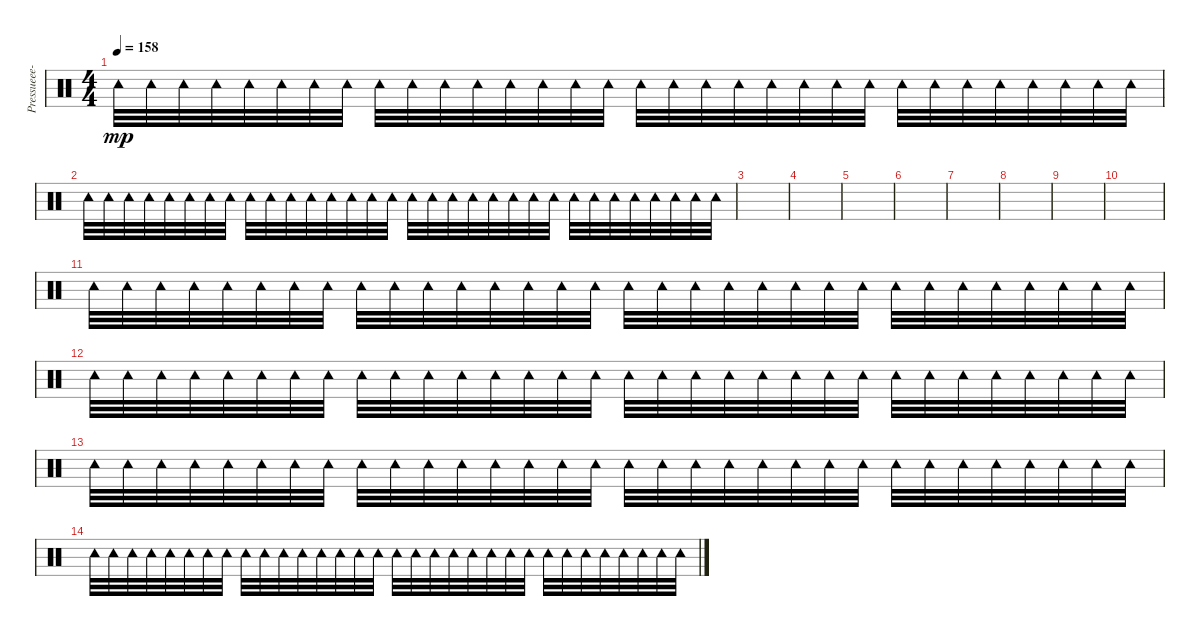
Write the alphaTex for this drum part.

\track ("" "Pressueee-") {instrument percussion}
\staff {score}
\articulation defaults
\ts (4 4)
\tempo 158
\clef neutral
\ks c "Tambourine (hit)".32{dy mp} "Tambourine (hit)".32 "Tambourine (hit)".32 "Tambourine (hit)".32 "Tambourine (hit)".32 "Tambourine (hit)".32 "Tambourine (hit)".32 "Tambourine (hit)".32 "Tambourine (hit)".32 "Tambourine (hit)".32 "Tambourine (hit)".32 "Tambourine (hit)".32 "Tambourine (hit)".32 "Tambourine (hit)".32 "Tambourine (hit)".32 "Tambourine (hit)".32 "Tambourine (hit)".32 "Tambourine (hit)".32 "Tambourine (hit)".32 "Tambourine (hit)".32 "Tambourine (hit)".32 "Tambourine (hit)".32 "Tambourine (hit)".32 "Tambourine (hit)".32 "Tambourine (hit)".32 "Tambourine (hit)".32 "Tambourine (hit)".32 "Tambourine (hit)".32 "Tambourine (hit)".32 "Tambourine (hit)".32 "Tambourine (hit)".32 "Tambourine (hit)".32
|
"Tambourine (hit)".32 "Tambourine (hit)".32 "Tambourine (hit)".32 "Tambourine (hit)".32 "Tambourine (hit)".32 "Tambourine (hit)".32 "Tambourine (hit)".32 "Tambourine (hit)".32 "Tambourine (hit)".32 "Tambourine (hit)".32 "Tambourine (hit)".32 "Tambourine (hit)".32 "Tambourine (hit)".32 "Tambourine (hit)".32 "Tambourine (hit)".32 "Tambourine (hit)".32 "Tambourine (hit)".32 "Tambourine (hit)".32 "Tambourine (hit)".32 "Tambourine (hit)".32 "Tambourine (hit)".32 "Tambourine (hit)".32 "Tambourine (hit)".32 "Tambourine (hit)".32 "Tambourine (hit)".32 "Tambourine (hit)".32 "Tambourine (hit)".32 "Tambourine (hit)".32 "Tambourine (hit)".32 "Tambourine (hit)".32 "Tambourine (hit)".32 "Tambourine (hit)".32 |
|
|
|
|
|
|
|
|
"Tambourine (hit)".32 "Tambourine (hit)".32 "Tambourine (hit)".32 "Tambourine (hit)".32 "Tambourine (hit)".32 "Tambourine (hit)".32 "Tambourine (hit)".32 "Tambourine (hit)".32 "Tambourine (hit)".32 "Tambourine (hit)".32 "Tambourine (hit)".32 "Tambourine (hit)".32 "Tambourine (hit)".32 "Tambourine (hit)".32 "Tambourine (hit)".32 "Tambourine (hit)".32 "Tambourine (hit)".32 "Tambourine (hit)".32 "Tambourine (hit)".32 "Tambourine (hit)".32 "Tambourine (hit)".32 "Tambourine (hit)".32 "Tambourine (hit)".32 "Tambourine (hit)".32 "Tambourine (hit)".32 "Tambourine (hit)".32 "Tambourine (hit)".32 "Tambourine (hit)".32 "Tambourine (hit)".32 "Tambourine (hit)".32 "Tambourine (hit)".32 "Tambourine (hit)".32 |
"Tambourine (hit)".32 "Tambourine (hit)".32 "Tambourine (hit)".32 "Tambourine (hit)".32 "Tambourine (hit)".32 "Tambourine (hit)".32 "Tambourine (hit)".32 "Tambourine (hit)".32 "Tambourine (hit)".32 "Tambourine (hit)".32 "Tambourine (hit)".32 "Tambourine (hit)".32 "Tambourine (hit)".32 "Tambourine (hit)".32 "Tambourine (hit)".32 "Tambourine (hit)".32 "Tambourine (hit)".32 "Tambourine (hit)".32 "Tambourine (hit)".32 "Tambourine (hit)".32 "Tambourine (hit)".32 "Tambourine (hit)".32 "Tambourine (hit)".32 "Tambourine (hit)".32 "Tambourine (hit)".32 "Tambourine (hit)".32 "Tambourine (hit)".32 "Tambourine (hit)".32 "Tambourine (hit)".32 "Tambourine (hit)".32 "Tambourine (hit)".32 "Tambourine (hit)".32 |
"Tambourine (hit)".32 "Tambourine (hit)".32 "Tambourine (hit)".32 "Tambourine (hit)".32 "Tambourine (hit)".32 "Tambourine (hit)".32 "Tambourine (hit)".32 "Tambourine (hit)".32 "Tambourine (hit)".32 "Tambourine (hit)".32 "Tambourine (hit)".32 "Tambourine (hit)".32 "Tambourine (hit)".32 "Tambourine (hit)".32 "Tambourine (hit)".32 "Tambourine (hit)".32 "Tambourine (hit)".32 "Tambourine (hit)".32 "Tambourine (hit)".32 "Tambourine (hit)".32 "Tambourine (hit)".32 "Tambourine (hit)".32 "Tambourine (hit)".32 "Tambourine (hit)".32 "Tambourine (hit)".32 "Tambourine (hit)".32 "Tambourine (hit)".32 "Tambourine (hit)".32 "Tambourine (hit)".32 "Tambourine (hit)".32 "Tambourine (hit)".32 "Tambourine (hit)".32 |
"Tambourine (hit)".32 "Tambourine (hit)".32 "Tambourine (hit)".32 "Tambourine (hit)".32 "Tambourine (hit)".32 "Tambourine (hit)".32 "Tambourine (hit)".32 "Tambourine (hit)".32 "Tambourine (hit)".32 "Tambourine (hit)".32 "Tambourine (hit)".32 "Tambourine (hit)".32 "Tambourine (hit)".32 "Tambourine (hit)".32 "Tambourine (hit)".32 "Tambourine (hit)".32 "Tambourine (hit)".32 "Tambourine (hit)".32 "Tambourine (hit)".32 "Tambourine (hit)".32 "Tambourine (hit)".32 "Tambourine (hit)".32 "Tambourine (hit)".32 "Tambourine (hit)".32 "Tambourine (hit)".32 "Tambourine (hit)".32 "Tambourine (hit)".32 "Tambourine (hit)".32 "Tambourine (hit)".32 "Tambourine (hit)".32 "Tambourine (hit)".32 "Tambourine (hit)".32
